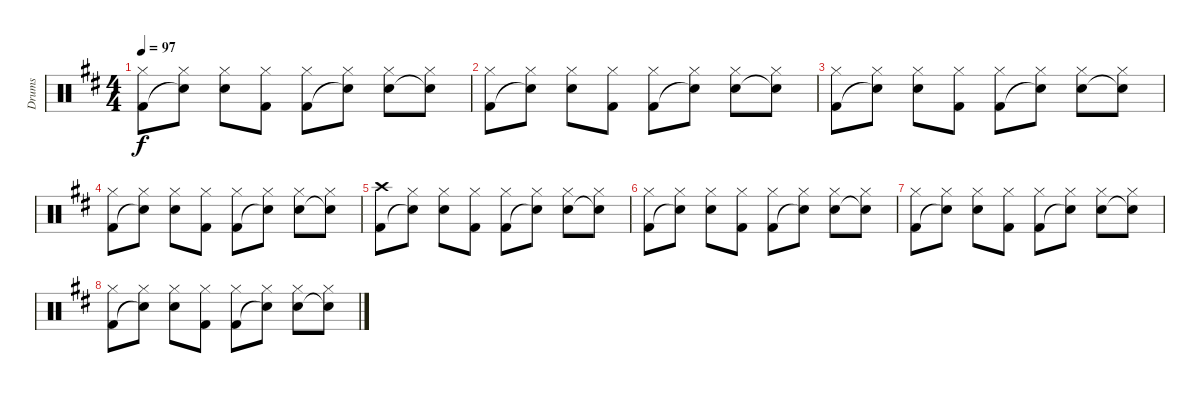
\track ("Drums" "Drums") {instrument percussion}
\staff {score}
\articulation defaults
\ts (4 4)
\tempo 97
\clef neutral
\ks d
("Hi-Hat (closed)" "Kick (hit) 2").8{dy f} ("Hi-Hat (closed)" "Snare (hit)"{t}).8 ("Hi-Hat (closed)" "Snare (hit) 2").8 ("Hi-Hat (closed)" "Kick (hit) 2").8 ("Hi-Hat (closed)" "Kick (hit) 2").8 ("Hi-Hat (closed)" "Snare (hit)"{t}).8 ("Hi-Hat (closed)" "Snare (hit) 2").8 ("Hi-Hat (closed)" "Snare (hit)"{t}).8 |
("Hi-Hat (closed)" "Kick (hit) 2").8 ("Hi-Hat (closed)" "Snare (hit)"{t}).8 ("Hi-Hat (closed)" "Snare (hit) 2").8 ("Hi-Hat (closed)" "Kick (hit) 2").8 ("Hi-Hat (closed)" "Kick (hit) 2").8 ("Hi-Hat (closed)" "Snare (hit)"{t}).8 ("Hi-Hat (closed)" "Snare (hit) 2").8 ("Hi-Hat (closed)" "Snare (hit)"{t}).8 |
("Hi-Hat (closed)" "Kick (hit) 2").8 ("Hi-Hat (closed)" "Snare (hit)"{t}).8 ("Hi-Hat (closed)" "Snare (hit) 2").8 ("Hi-Hat (closed)" "Kick (hit) 2").8 ("Hi-Hat (closed)" "Kick (hit) 2").8 ("Hi-Hat (closed)" "Snare (hit)"{t}).8 ("Hi-Hat (closed)" "Snare (hit) 2").8 ("Hi-Hat (closed)" "Snare (hit)"{t}).8 |
("Hi-Hat (closed)" "Kick (hit) 2").8 ("Hi-Hat (closed)" "Snare (hit)"{t}).8 ("Hi-Hat (closed)" "Snare (hit) 2").8 ("Hi-Hat (closed)" "Kick (hit) 2").8 ("Hi-Hat (closed)" "Kick (hit) 2").8 ("Hi-Hat (closed)" "Snare (hit)"{t}).8 ("Hi-Hat (closed)" "Snare (hit) 2").8 ("Hi-Hat (closed)" "Snare (hit)"{t}).8 |
("Crash high (hit)" "Kick (hit) 2").8{volume 0} ("Hi-Hat (closed)" "Snare (hit)"{t}).8 ("Hi-Hat (closed)" "Snare (hit) 2").8 ("Hi-Hat (closed)" "Kick (hit) 2").8 ("Hi-Hat (closed)" "Kick (hit) 2").8 ("Hi-Hat (closed)" "Snare (hit)"{t}).8 ("Hi-Hat (closed)" "Snare (hit) 2").8 ("Hi-Hat (closed)" "Snare (hit)"{t}).8 |
("Hi-Hat (closed)" "Kick (hit) 2").8 ("Hi-Hat (closed)" "Snare (hit)"{t}).8 ("Hi-Hat (closed)" "Snare (hit) 2").8 ("Hi-Hat (closed)" "Kick (hit) 2").8 ("Hi-Hat (closed)" "Kick (hit) 2").8 ("Hi-Hat (closed)" "Snare (hit)"{t}).8 ("Hi-Hat (closed)" "Snare (hit) 2").8 ("Hi-Hat (closed)" "Snare (hit)"{t}).8 |
("Hi-Hat (closed)" "Kick (hit) 2").8 ("Hi-Hat (closed)" "Snare (hit)"{t}).8 ("Hi-Hat (closed)" "Snare (hit) 2").8 ("Hi-Hat (closed)" "Kick (hit) 2").8 ("Hi-Hat (closed)" "Kick (hit) 2").8 ("Hi-Hat (closed)" "Snare (hit)"{t}).8 ("Hi-Hat (closed)" "Snare (hit) 2").8 ("Hi-Hat (closed)" "Snare (hit)"{t}).8 |
("Hi-Hat (closed)" "Kick (hit) 2").8 ("Hi-Hat (closed)" "Snare (hit)"{t}).8 ("Hi-Hat (closed)" "Snare (hit) 2").8 ("Hi-Hat (closed)" "Kick (hit) 2").8 ("Hi-Hat (closed)" "Kick (hit) 2").8 ("Hi-Hat (closed)" "Snare (hit)"{t}).8 ("Hi-Hat (closed)" "Snare (hit) 2").8 ("Hi-Hat (closed)" "Snare (hit)"{t}).8
